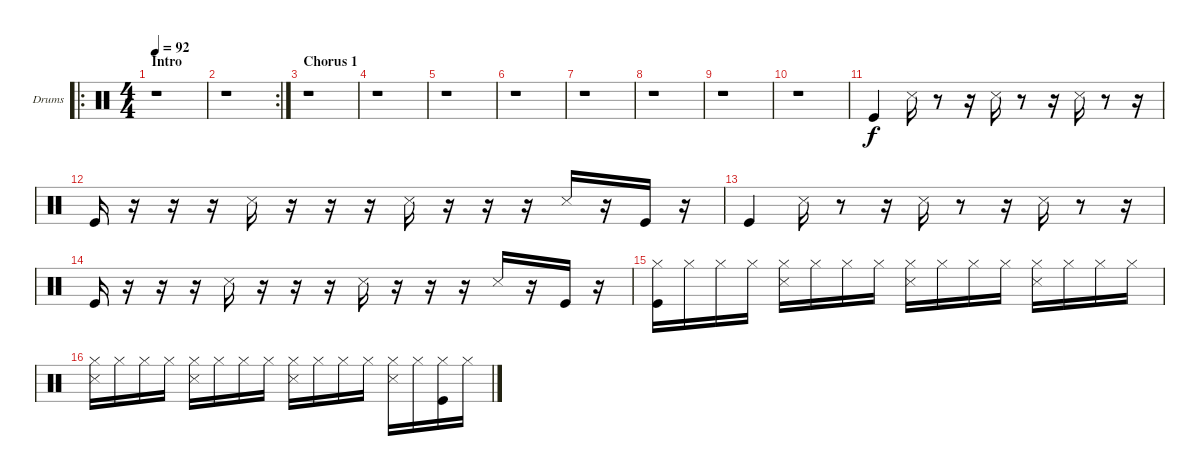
\bracketExtendMode groupsimilarinstruments
\firstSystemTrackNameOrientation horizontal
\otherSystemsTrackNameOrientation horizontal
\track ("Drumkit" "Drums") {instrument percussion}
\staff {score}
\articulation defaults
\ro
\ts (4 4)
\section ("" "Intro")
\tempo 92
\clef neutral
\ks c
r.1{dy f} |
\rc 2
r.1 |
\section ("" "Chorus 1")
r.1 |
r.1 |
r.1 |
r.1 |
r.1 |
r.1 |
r.1 |
r.1 |
"Kick (hit)".4 "Snare (side stick) 3".16 r.8 r.16 "Snare (side stick) 3".16 r.8 r.16 "Snare (side stick) 3".16 r.8 r.16 |
"Kick (hit)".16 r.16 r.16 r.16 "Snare (side stick) 3".16 r.16 r.16 r.16 "Snare (side stick) 3".16 r.16 r.16 r.16 "Snare (side stick) 3".16 r.16 "Kick (hit)".16 r.16 |
"Kick (hit)".4 "Snare (side stick) 3".16 r.8 r.16 "Snare (side stick) 3".16 r.8 r.16 "Snare (side stick) 3".16 r.8 r.16 |
"Kick (hit)".16 r.16 r.16 r.16 "Snare (side stick) 3".16 r.16 r.16 r.16 "Snare (side stick) 3".16 r.16 r.16 r.16 "Snare (side stick) 3".16 r.16 "Kick (hit)".16 r.16 |
("Hi-Hat (closed)" "Kick (hit)").16 "Hi-Hat (closed)".16 "Hi-Hat (closed)".16 "Hi-Hat (closed)".16 ("Hi-Hat (closed)" "Snare (side stick) 3").16 "Hi-Hat (closed)".16 "Hi-Hat (closed)".16 "Hi-Hat (closed)".16 ("Hi-Hat (closed)" "Snare (side stick) 3").16 "Hi-Hat (closed)".16 "Hi-Hat (closed)".16 "Hi-Hat (closed)".16 ("Hi-Hat (closed)" "Snare (side stick) 3").16 "Hi-Hat (closed)".16 "Hi-Hat (closed)".16 "Hi-Hat (closed)".16 |
("Hi-Hat (closed)" "Snare (side stick) 3").16 "Hi-Hat (closed)".16 "Hi-Hat (closed)".16 "Hi-Hat (closed)".16 ("Hi-Hat (closed)" "Snare (side stick) 3").16 "Hi-Hat (closed)".16 "Hi-Hat (closed)".16 "Hi-Hat (closed)".16 ("Hi-Hat (closed)" "Snare (side stick) 3").16 "Hi-Hat (closed)".16 "Hi-Hat (closed)".16 "Hi-Hat (closed)".16 ("Hi-Hat (closed)" "Snare (side stick) 3").16 "Hi-Hat (closed)".16 ("Hi-Hat (closed)" "Kick (hit)").16 "Hi-Hat (closed)".16
